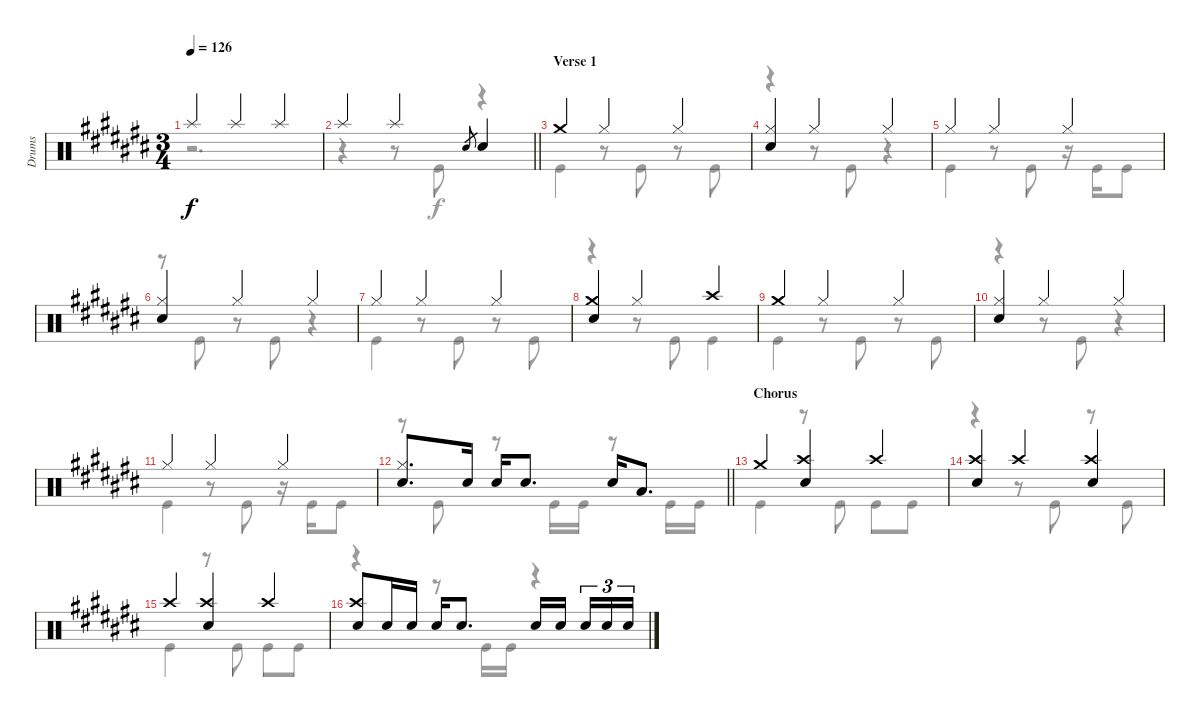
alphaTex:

\track ("Drums" "Drums") {instrument percussion}
\staff {score}
\articulation defaults
\voice
\ts (3 4)
\tempo 126
\clef neutral
\ks c# "Splash (hit)".4{dy f} "Splash (hit)".4 "Splash (hit)".4
|
\barLineRight lightlight "Splash (hit)".4 "Splash (hit)".4 "Electric Snare (hit)".8{gr} "Electric Snare (hit)".4
|
\section ("" "Verse 1")
"Crash medium (hit)".4 "Hi-Hat (closed)".4 "Hi-Hat (closed)".4 |
("Hi-Hat (closed)" "Snare (hit) 2").4 "Hi-Hat (closed)".4 "Hi-Hat (closed)".4 |
"Hi-Hat (closed)".4 "Hi-Hat (closed)".4 "Hi-Hat (closed)".4 |
("Hi-Hat (closed)" "Snare (hit) 2").4 "Hi-Hat (closed)".4 "Hi-Hat (closed)".4 |
"Hi-Hat (closed)".4 "Hi-Hat (closed)".4 "Hi-Hat (closed)".4 |
("Crash medium (hit)" "Snare (hit) 2").4 "Hi-Hat (closed)".4 "Crash high (hit)".4 |
"Crash medium (hit)".4 "Hi-Hat (closed)".4 "Hi-Hat (closed)".4 |
("Hi-Hat (closed)" "Snare (hit) 2").4 "Hi-Hat (closed)".4 "Hi-Hat (closed)".4 |
"Hi-Hat (closed)".4 "Hi-Hat (closed)".4 "Hi-Hat (closed)".4 |
\barLineRight lightlight
("Hi-Hat (closed)" "Snare (hit) 2").8{d} "Snare (hit) 2".16 "Snare (hit) 2".16 "Snare (hit) 2".8{d} "Snare (hit) 2".16 "Low Tom (hit)".8{d} |
\section ("" "Chorus")
"Crash medium (hit)".4 ("Crash high (hit)" "Electric Snare (hit)").4 "Crash high (hit)".4 |
("Crash high (hit)" "Electric Snare (hit)").4 "Crash high (hit)".4 ("Crash high (hit)" "Electric Snare (hit)").4 |
"Crash high (hit)".4 ("Crash high (hit)" "Electric Snare (hit)").4 "Crash high (hit)".4 |
("Crash high (hit)" "Electric Snare (hit)").8 "Electric Snare (hit)".16 "Electric Snare (hit)".16{beam split} "Electric Snare (hit)".16 "Electric Snare (hit)".8{d beam split} "Electric Snare (hit)".16 "Electric Snare (hit)".16{beam splitsecondary} "Electric Snare (hit)".16{tu (3 2)} "Electric Snare (hit)".16{tu (3 2)} "Electric Snare (hit)".16{tu (3 2)}
\voice
\clef neutral
\ottava regular
\simile none
\ks c#
r.2{d dy f} |
\barLineRight lightlight
r.4 r.8 "Kick (hit)".8 r.4 |
"Kick (hit)".4 r.8 "Kick (hit)".8 r.8 "Kick (hit)".8 |
r.4 r.8 "Kick (hit)".8 r.4 |
"Kick (hit)".4 r.8 "Kick (hit)".8 r.16 "Kick (hit)".16 "Kick (hit)".8 |
r.8 "Kick (hit)".8 r.8 "Kick (hit)".8 r.4 |
"Kick (hit)".4 r.8 "Kick (hit)".8 r.8 "Kick (hit)".8 |
r.4 r.8 "Kick (hit)".8 "Kick (hit)".4 |
"Kick (hit)".4 r.8 "Kick (hit)".8 r.8 "Kick (hit)".8 |
r.4 r.8 "Kick (hit)".8 r.4 |
"Kick (hit)".4 r.8 "Kick (hit)".8 r.16 "Kick (hit)".16 "Kick (hit)".8 |
\barLineRight lightlight
r.8 "Kick (hit)".8 r.8 "Kick (hit)".16 "Kick (hit)".16 r.8 "Kick (hit)".16 "Kick (hit)".16 |
"Kick (hit)".4 r.8 "Kick (hit)".8{beam split} "Kick (hit)".8 "Kick (hit)".8 |
r.4 r.8 "Kick (hit)".8{beam split} r.8 "Kick (hit)".8 |
"Kick (hit)".4 r.8 "Kick (hit)".8{beam split} "Kick (hit)".8 "Kick (hit)".8 |
r.4 r.8 "Kick (hit)".16 "Kick (hit)".16 r.4
